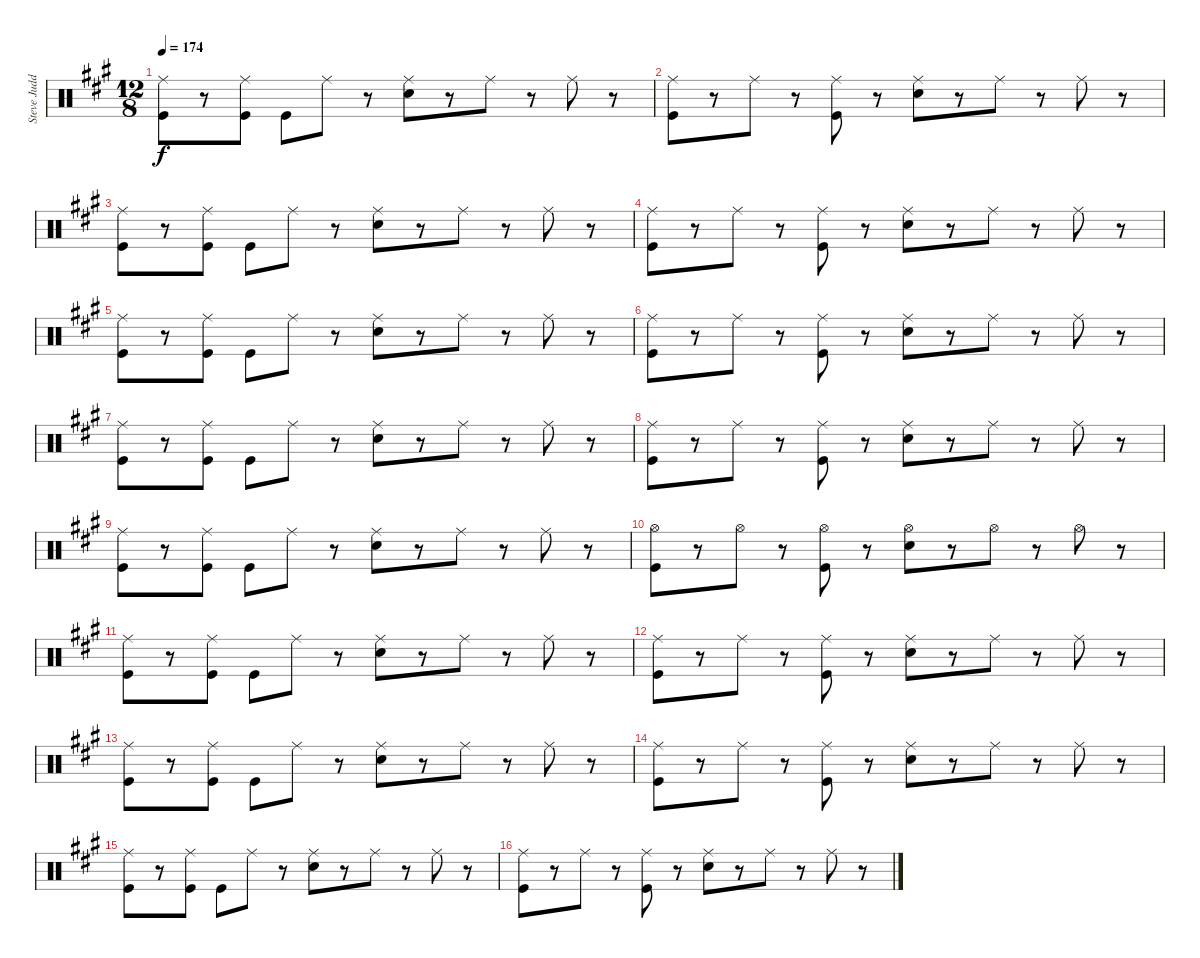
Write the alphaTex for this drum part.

\track ("Steve Judd (Drums)" "Steve Judd") {instrument percussion}
\staff {score}
\articulation defaults
\ts (12 8)
\tempo 174
\clef neutral
\ks a
("Ride (middle)" "Kick (hit)").8{dy f} r.8 ("Ride (middle)" "Kick (hit)").8 "Kick (hit)".8 "Ride (middle)".8 r.8 ("Snare (hit) 2" "Ride (middle)").8 r.8 "Ride (middle)".8 r.8 "Ride (middle)".8 r.8 |
("Ride (middle)" "Kick (hit)").8 r.8 "Ride (middle)".8 r.8 ("Ride (middle)" "Kick (hit)").8 r.8 ("Snare (hit) 2" "Ride (middle)").8 r.8 "Ride (middle)".8 r.8 "Ride (middle)".8 r.8 |
("Ride (middle)" "Kick (hit)").8 r.8 ("Ride (middle)" "Kick (hit)").8 "Kick (hit)".8 "Ride (middle)".8 r.8 ("Snare (hit) 2" "Ride (middle)").8 r.8 "Ride (middle)".8 r.8 "Ride (middle)".8 r.8 |
("Ride (middle)" "Kick (hit)").8 r.8 "Ride (middle)".8 r.8 ("Ride (middle)" "Kick (hit)").8 r.8 ("Snare (hit) 2" "Ride (middle)").8 r.8 "Ride (middle)".8 r.8 "Ride (middle)".8 r.8 |
("Ride (middle)" "Kick (hit)").8 r.8 ("Ride (middle)" "Kick (hit)").8 "Kick (hit)".8 "Ride (middle)".8 r.8 ("Snare (hit) 2" "Ride (middle)").8 r.8 "Ride (middle)".8 r.8 "Ride (middle)".8 r.8 |
("Ride (middle)" "Kick (hit)").8 r.8 "Ride (middle)".8 r.8 ("Ride (middle)" "Kick (hit)").8 r.8 ("Snare (hit) 2" "Ride (middle)").8 r.8 "Ride (middle)".8 r.8 "Ride (middle)".8 r.8 |
("Ride (middle)" "Kick (hit)").8 r.8 ("Ride (middle)" "Kick (hit)").8 "Kick (hit)".8 "Ride (middle)".8 r.8 ("Snare (hit) 2" "Ride (middle)").8 r.8 "Ride (middle)".8 r.8 "Ride (middle)".8 r.8 |
("Ride (middle)" "Kick (hit)").8 r.8 "Ride (middle)".8 r.8 ("Ride (middle)" "Kick (hit)").8 r.8 ("Snare (hit) 2" "Ride (middle)").8 r.8 "Ride (middle)".8 r.8 "Ride (middle)".8 r.8 |
("Ride (middle)" "Kick (hit)").8 r.8 ("Ride (middle)" "Kick (hit)").8 "Kick (hit)".8 "Ride (middle)".8 r.8 ("Snare (hit) 2" "Ride (middle)").8 r.8 "Ride (middle)".8 r.8 "Ride (middle)".8 r.8 |
("Hi-Hat (open)" "Kick (hit)").8 r.8 "Hi-Hat (open)".8 r.8 ("Hi-Hat (open)" "Kick (hit)").8 r.8 ("Snare (hit) 2" "Hi-Hat (open)").8 r.8 "Hi-Hat (open)".8 r.8 "Hi-Hat (open)".8 r.8 |
("Ride (middle)" "Kick (hit)").8 r.8 ("Ride (middle)" "Kick (hit)").8 "Kick (hit)".8 "Ride (middle)".8 r.8 ("Snare (hit) 2" "Ride (middle)").8 r.8 "Ride (middle)".8 r.8 "Ride (middle)".8 r.8 |
("Ride (middle)" "Kick (hit)").8 r.8 "Ride (middle)".8 r.8 ("Ride (middle)" "Kick (hit)").8 r.8 ("Snare (hit) 2" "Ride (middle)").8 r.8 "Ride (middle)".8 r.8 "Ride (middle)".8 r.8 |
("Ride (middle)" "Kick (hit)").8 r.8 ("Ride (middle)" "Kick (hit)").8 "Kick (hit)".8 "Ride (middle)".8 r.8 ("Snare (hit) 2" "Ride (middle)").8 r.8 "Ride (middle)".8 r.8 "Ride (middle)".8 r.8 |
("Ride (middle)" "Kick (hit)").8 r.8 "Ride (middle)".8 r.8 ("Ride (middle)" "Kick (hit)").8 r.8 ("Snare (hit) 2" "Ride (middle)").8 r.8 "Ride (middle)".8 r.8 "Ride (middle)".8 r.8 |
("Ride (middle)" "Kick (hit)").8 r.8 ("Ride (middle)" "Kick (hit)").8 "Kick (hit)".8 "Ride (middle)".8 r.8 ("Snare (hit) 2" "Ride (middle)").8 r.8 "Ride (middle)".8 r.8 "Ride (middle)".8 r.8 |
("Ride (middle)" "Kick (hit)").8 r.8 "Ride (middle)".8 r.8 ("Ride (middle)" "Kick (hit)").8 r.8 ("Snare (hit) 2" "Ride (middle)").8 r.8 "Ride (middle)".8 r.8 "Ride (middle)".8 r.8
